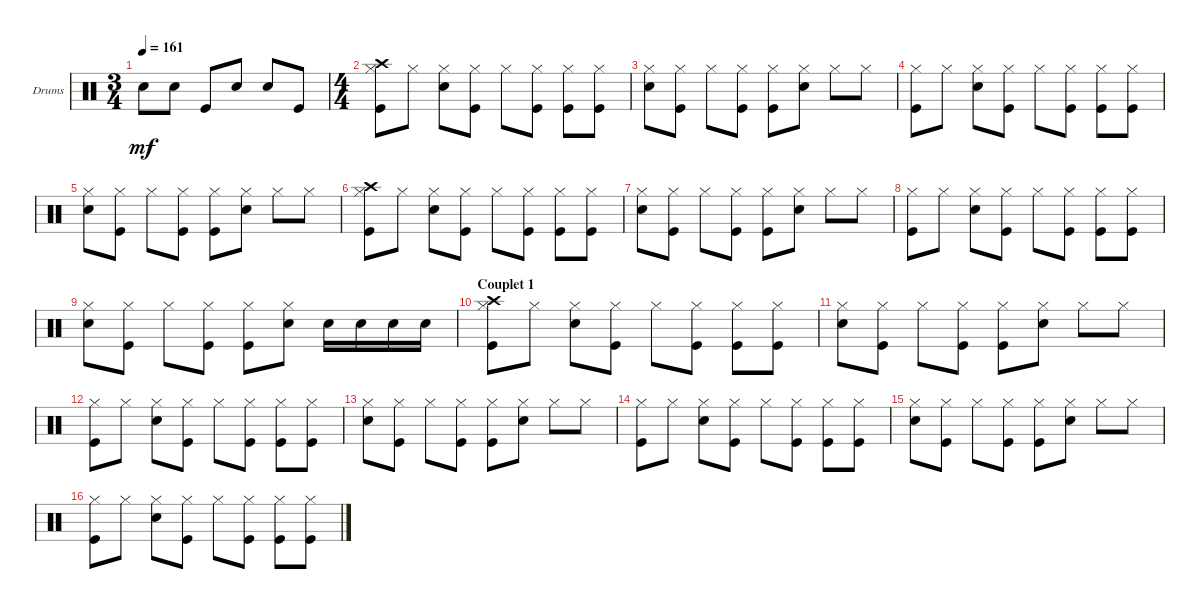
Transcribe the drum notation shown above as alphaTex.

\defaultSystemsLayout 4
\bracketExtendMode groupsimilarinstruments
\firstSystemTrackNameOrientation horizontal
\otherSystemsTrackNameOrientation horizontal
\chordDiagramsInScore
\track ("Drumkit" "Drums") {instrument percussion}
\staff {score}
\articulation defaults
\ts (3 4)
\tempo 161
\clef neutral
\ks c "Snare (hit) 2".8{dy mf} "Snare (hit) 2".8 "Kick (hit)".8 "Snare (hit) 2".8 "Snare (hit) 2".8 "Kick (hit)".8
|
\ts (4 4)
("Hi-Hat (closed)" "Kick (hit)" "Crash high (hit)").8 "Hi-Hat (closed)".8 ("Hi-Hat (closed)" "Snare (hit) 2").8 ("Hi-Hat (closed)" "Kick (hit)").8 "Hi-Hat (closed)".8 ("Hi-Hat (closed)" "Kick (hit)").8 ("Hi-Hat (closed)" "Kick (hit)").8 ("Hi-Hat (closed)" "Kick (hit)").8 |
("Hi-Hat (closed)" "Snare (hit) 2").8 ("Hi-Hat (closed)" "Kick (hit)").8 "Hi-Hat (closed)".8 ("Hi-Hat (closed)" "Kick (hit)").8 ("Hi-Hat (closed)" "Kick (hit)").8 ("Hi-Hat (closed)" "Snare (hit) 2").8 "Hi-Hat (closed)".8 "Hi-Hat (closed)".8 |
("Hi-Hat (closed)" "Kick (hit)").8 "Hi-Hat (closed)".8 ("Hi-Hat (closed)" "Snare (hit) 2").8 ("Hi-Hat (closed)" "Kick (hit)").8 "Hi-Hat (closed)".8 ("Hi-Hat (closed)" "Kick (hit)").8 ("Hi-Hat (closed)" "Kick (hit)").8 ("Hi-Hat (closed)" "Kick (hit)").8 |
("Hi-Hat (closed)" "Snare (hit) 2").8 ("Hi-Hat (closed)" "Kick (hit)").8 "Hi-Hat (closed)".8 ("Hi-Hat (closed)" "Kick (hit)").8 ("Hi-Hat (closed)" "Kick (hit)").8 ("Hi-Hat (closed)" "Snare (hit) 2").8 "Hi-Hat (closed)".8 "Hi-Hat (closed)".8 |
("Hi-Hat (closed)" "Kick (hit)" "Crash high (hit)").8 "Hi-Hat (closed)".8 ("Hi-Hat (closed)" "Snare (hit) 2").8 ("Hi-Hat (closed)" "Kick (hit)").8 "Hi-Hat (closed)".8 ("Hi-Hat (closed)" "Kick (hit)").8 ("Hi-Hat (closed)" "Kick (hit)").8 ("Hi-Hat (closed)" "Kick (hit)").8 |
("Hi-Hat (closed)" "Snare (hit) 2").8 ("Hi-Hat (closed)" "Kick (hit)").8 "Hi-Hat (closed)".8 ("Hi-Hat (closed)" "Kick (hit)").8 ("Hi-Hat (closed)" "Kick (hit)").8 ("Hi-Hat (closed)" "Snare (hit) 2").8 "Hi-Hat (closed)".8 "Hi-Hat (closed)".8 |
("Hi-Hat (closed)" "Kick (hit)").8 "Hi-Hat (closed)".8 ("Hi-Hat (closed)" "Snare (hit) 2").8 ("Hi-Hat (closed)" "Kick (hit)").8 "Hi-Hat (closed)".8 ("Hi-Hat (closed)" "Kick (hit)").8 ("Hi-Hat (closed)" "Kick (hit)").8 ("Hi-Hat (closed)" "Kick (hit)").8 |
("Hi-Hat (closed)" "Snare (hit) 2").8 ("Hi-Hat (closed)" "Kick (hit)").8 "Hi-Hat (closed)".8 ("Hi-Hat (closed)" "Kick (hit)").8 ("Hi-Hat (closed)" "Kick (hit)").8 ("Hi-Hat (closed)" "Snare (hit) 2").8 "Snare (hit) 2".16 "Snare (hit) 2".16 "Snare (hit) 2".16 "Snare (hit) 2".16 |
\section ("" "Couplet 1")
("Hi-Hat (closed)" "Kick (hit)" "Crash high (hit)").8 "Hi-Hat (closed)".8 ("Hi-Hat (closed)" "Snare (hit) 2").8 ("Hi-Hat (closed)" "Kick (hit)").8 "Hi-Hat (closed)".8 ("Hi-Hat (closed)" "Kick (hit)").8 ("Hi-Hat (closed)" "Kick (hit)").8 ("Hi-Hat (closed)" "Kick (hit)").8 |
("Hi-Hat (closed)" "Snare (hit) 2").8 ("Hi-Hat (closed)" "Kick (hit)").8 "Hi-Hat (closed)".8 ("Hi-Hat (closed)" "Kick (hit)").8 ("Hi-Hat (closed)" "Kick (hit)").8 ("Hi-Hat (closed)" "Snare (hit) 2").8 "Hi-Hat (closed)".8 "Hi-Hat (closed)".8 |
("Hi-Hat (closed)" "Kick (hit)").8 "Hi-Hat (closed)".8 ("Hi-Hat (closed)" "Snare (hit) 2").8 ("Hi-Hat (closed)" "Kick (hit)").8 "Hi-Hat (closed)".8 ("Hi-Hat (closed)" "Kick (hit)").8 ("Hi-Hat (closed)" "Kick (hit)").8 ("Hi-Hat (closed)" "Kick (hit)").8 |
("Hi-Hat (closed)" "Snare (hit) 2").8 ("Hi-Hat (closed)" "Kick (hit)").8 "Hi-Hat (closed)".8 ("Hi-Hat (closed)" "Kick (hit)").8 ("Hi-Hat (closed)" "Kick (hit)").8 ("Hi-Hat (closed)" "Snare (hit) 2").8 "Hi-Hat (closed)".8 "Hi-Hat (closed)".8 |
("Hi-Hat (closed)" "Kick (hit)").8 "Hi-Hat (closed)".8 ("Hi-Hat (closed)" "Snare (hit) 2").8 ("Hi-Hat (closed)" "Kick (hit)").8 "Hi-Hat (closed)".8 ("Hi-Hat (closed)" "Kick (hit)").8 ("Hi-Hat (closed)" "Kick (hit)").8 ("Hi-Hat (closed)" "Kick (hit)").8 |
("Hi-Hat (closed)" "Snare (hit) 2").8 ("Hi-Hat (closed)" "Kick (hit)").8 "Hi-Hat (closed)".8 ("Hi-Hat (closed)" "Kick (hit)").8 ("Hi-Hat (closed)" "Kick (hit)").8 ("Hi-Hat (closed)" "Snare (hit) 2").8 "Hi-Hat (closed)".8 "Hi-Hat (closed)".8 |
("Hi-Hat (closed)" "Kick (hit)").8 "Hi-Hat (closed)".8 ("Hi-Hat (closed)" "Snare (hit) 2").8 ("Hi-Hat (closed)" "Kick (hit)").8 "Hi-Hat (closed)".8 ("Hi-Hat (closed)" "Kick (hit)").8 ("Hi-Hat (closed)" "Kick (hit)").8 ("Hi-Hat (closed)" "Kick (hit)").8
